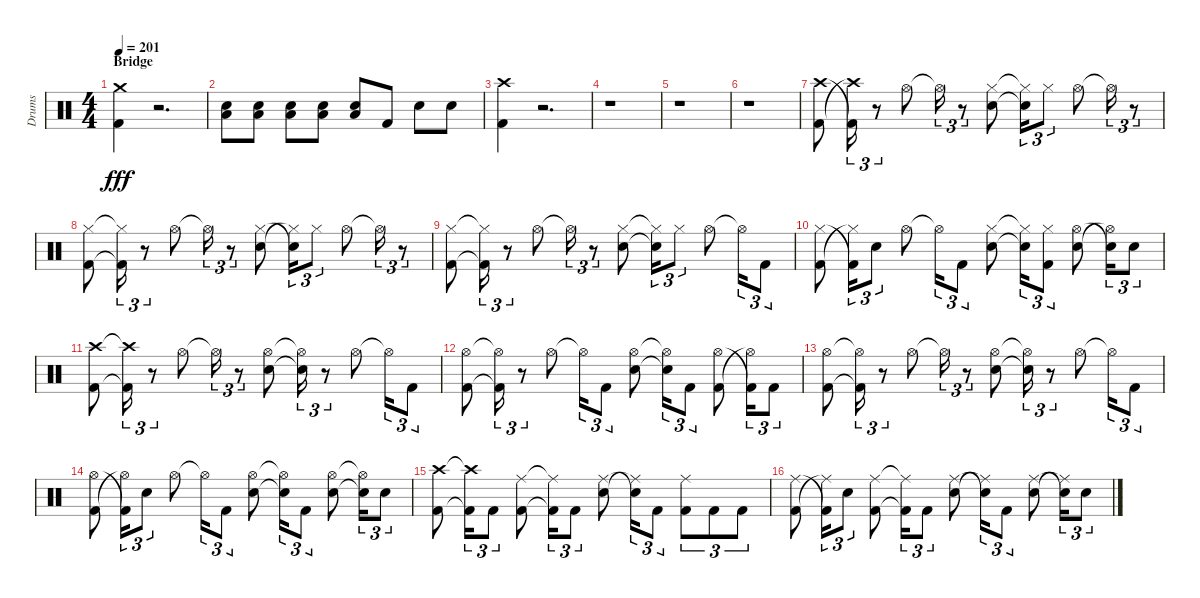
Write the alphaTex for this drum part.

\track ("Drums" "Drums") {instrument percussion}
\staff {score}
\articulation defaults
\ts (4 4)
\section ("" "Bridge")
\tempo 201
\clef neutral
\ks aminor
("Kick (hit) 2" "Crash medium (hit)").4{dy fff} r.2{d} |
("Snare (hit) 2" "Low Floor Tom (hit)").8 ("Low Floor Tom (hit)" "Snare (hit) 2").8 ("Snare (hit) 2" "Low Floor Tom (hit)").8 ("Snare (hit) 2" "Low Floor Tom (hit)").8 ("Low Floor Tom (hit)" "Snare (hit) 2").8 "Kick (hit) 2".8 "Snare (hit) 2".8 "Snare (hit) 2".8 |
("Crash high (hit)" "Kick (hit) 2").4 r.2{d} |
r.1 |
r.1 |
r.1 |
("Crash high (hit)" "Kick (hit) 2").8 ("Kick (hit) 2"{t} "Crash high (hit)"{t}).16{tu (3 2)} r.8{tu (3 2)} "Hi-Hat (open)".8 "Hi-Hat (open)"{t}.16{tu (3 2)} r.8{tu (3 2)} ("Snare (hit) 2" "Hi-Hat (closed)").8 ("Snare (hit) 2"{t} "Hi-Hat (closed)"{t}).16{tu (3 2)} "Hi-Hat (closed)".8{tu (3 2)} "Hi-Hat (open)".8 "Hi-Hat (open)"{t}.16{tu (3 2)} r.8{tu (3 2)} |
("Kick (hit) 2" "Hi-Hat (closed)").8 ("Kick (hit) 2"{t} "Hi-Hat (closed)"{t}).16{tu (3 2)} r.8{tu (3 2)} "Hi-Hat (open)".8 "Hi-Hat (open)"{t}.16{tu (3 2)} r.8{tu (3 2)} ("Hi-Hat (closed)" "Snare (hit) 2").8 ("Snare (hit) 2"{t} "Hi-Hat (closed)"{t}).16{tu (3 2)} "Hi-Hat (closed)".8{tu (3 2)} "Hi-Hat (open)".8 "Hi-Hat (open)"{t}.16{tu (3 2)} r.8{tu (3 2)} |
("Kick (hit) 2" "Hi-Hat (closed)").8 ("Kick (hit) 2"{t} "Hi-Hat (closed)"{t}).16{tu (3 2)} r.8{tu (3 2)} "Hi-Hat (open)".8 "Hi-Hat (open)"{t}.16{tu (3 2)} r.8{tu (3 2)} ("Snare (hit) 2" "Hi-Hat (closed)").8 ("Snare (hit) 2"{t} "Hi-Hat (closed)"{t}).16{tu (3 2)} "Hi-Hat (closed)".8{tu (3 2)} "Hi-Hat (open)".8 "Hi-Hat (open)"{t}.16{tu (3 2)} "Kick (hit) 2".8{tu (3 2)} |
("Kick (hit) 2" "Hi-Hat (closed)").8 ("Hi-Hat (closed)"{t} "Kick (hit) 2"{t}).16{tu (3 2)} "Snare (hit) 2".8{tu (3 2)} "Hi-Hat (open)".8 "Hi-Hat (open)"{t}.16{tu (3 2)} "Kick (hit) 2".8{tu (3 2)} ("Snare (hit) 2" "Hi-Hat (closed)").8 ("Snare (hit) 2"{t} "Hi-Hat (closed)"{t}).16{tu (3 2)} ("Hi-Hat (closed)" "Kick (hit) 2").8{tu (3 2)} ("Hi-Hat (open)" "Snare (hit) 2").8 ("Snare (hit) 2"{t} "Hi-Hat (open)"{t}).16{tu (3 2)} "Snare (hit) 2".8{tu (3 2)} |
("Crash high (hit)" "Kick (hit) 2").8 ("Crash high (hit)"{t} "Kick (hit) 2"{t}).16{tu (3 2)} r.8{tu (3 2)} "Hi-Hat (open)".8 "Hi-Hat (open)"{t}.16{tu (3 2)} r.8{tu (3 2)} ("Hi-Hat (open)" "Snare (hit) 2").8 ("Hi-Hat (open)"{t} "Snare (hit) 2"{t}).16{tu (3 2)} r.8{tu (3 2)} "Hi-Hat (open)".8 "Hi-Hat (open)"{t}.16{tu (3 2)} "Kick (hit) 2".8{tu (3 2)} |
("Kick (hit) 2" "Hi-Hat (open)").8 ("Kick (hit) 2"{t} "Hi-Hat (open)"{t}).16{tu (3 2)} r.8{tu (3 2)} "Hi-Hat (open)".8 "Hi-Hat (open)"{t}.16{tu (3 2)} "Kick (hit) 2".8{tu (3 2)} ("Snare (hit) 2" "Hi-Hat (open)").8 ("Snare (hit) 2"{t} "Hi-Hat (open)"{t}).16{tu (3 2)} "Kick (hit) 2".8{tu (3 2)} ("Kick (hit) 2" "Hi-Hat (open)").8 ("Hi-Hat (open)"{t} "Kick (hit) 2"{t}).16{tu (3 2)} "Kick (hit) 2".8{tu (3 2)} |
("Kick (hit) 2" "Hi-Hat (open)").8 ("Kick (hit) 2"{t} "Hi-Hat (open)"{t}).16{tu (3 2)} r.8{tu (3 2)} "Hi-Hat (open)".8 "Hi-Hat (open)"{t}.16{tu (3 2)} r.8{tu (3 2)} ("Snare (hit) 2" "Hi-Hat (open)").8 ("Snare (hit) 2"{t} "Hi-Hat (open)"{t}).16{tu (3 2)} r.8{tu (3 2)} "Hi-Hat (open)".8 "Hi-Hat (open)"{t}.16{tu (3 2)} "Kick (hit) 2".8{tu (3 2)} |
("Hi-Hat (open)" "Kick (hit) 2").8 ("Kick (hit) 2"{t} "Hi-Hat (open)"{t}).16{tu (3 2)} "Snare (hit) 2".8{tu (3 2)} "Hi-Hat (open)".8 "Hi-Hat (open)"{t}.16{tu (3 2)} "Kick (hit) 2".8{tu (3 2)} ("Snare (hit) 2" "Hi-Hat (open)").8 ("Snare (hit) 2"{t} "Hi-Hat (open)"{t}).16{tu (3 2)} "Kick (hit) 2".8{tu (3 2)} ("Snare (hit) 2" "Hi-Hat (open)").8 ("Snare (hit) 2"{t} "Hi-Hat (open)"{t}).16{tu (3 2)} "Snare (hit) 2".8{tu (3 2)} |
("Kick (hit) 2" "Crash high (hit)").8 ("Kick (hit) 2"{t} "Crash high (hit)"{t}).16{tu (3 2)} "Kick (hit) 2".8{tu (3 2)} ("Kick (hit) 2" "Ride (middle)").8 ("Kick (hit) 2"{t} "Ride (middle)"{t}).16{tu (3 2)} "Kick (hit) 2".8{tu (3 2)} ("Snare (hit) 2" "Ride (middle)").8 ("Ride (middle)"{t} "Snare (hit) 2"{t}).16{tu (3 2)} "Kick (hit) 2".8{tu (3 2)} ("Ride (middle)" "Kick (hit) 2").8{tu (3 2)} "Kick (hit) 2".8{tu (3 2)} "Kick (hit) 2".8{tu (3 2)} |
("Ride (middle)" "Kick (hit) 2").8 ("Kick (hit) 2"{t} "Ride (middle)"{t}).16{tu (3 2)} "Snare (hit) 2".8{tu (3 2)} ("Kick (hit) 2" "Ride (middle)").8 ("Kick (hit) 2"{t} "Ride (middle)"{t}).16{tu (3 2)} "Kick (hit) 2".8{tu (3 2)} ("Snare (hit) 2" "Ride (middle)").8 ("Ride (middle)"{t} "Snare (hit) 2"{t}).16{tu (3 2)} "Kick (hit) 2".8{tu (3 2)} ("Ride (middle)" "Snare (hit) 2").8 ("Snare (hit) 2"{t} "Ride (middle)"{t}).16{tu (3 2)} "Snare (hit) 2".8{tu (3 2)}
